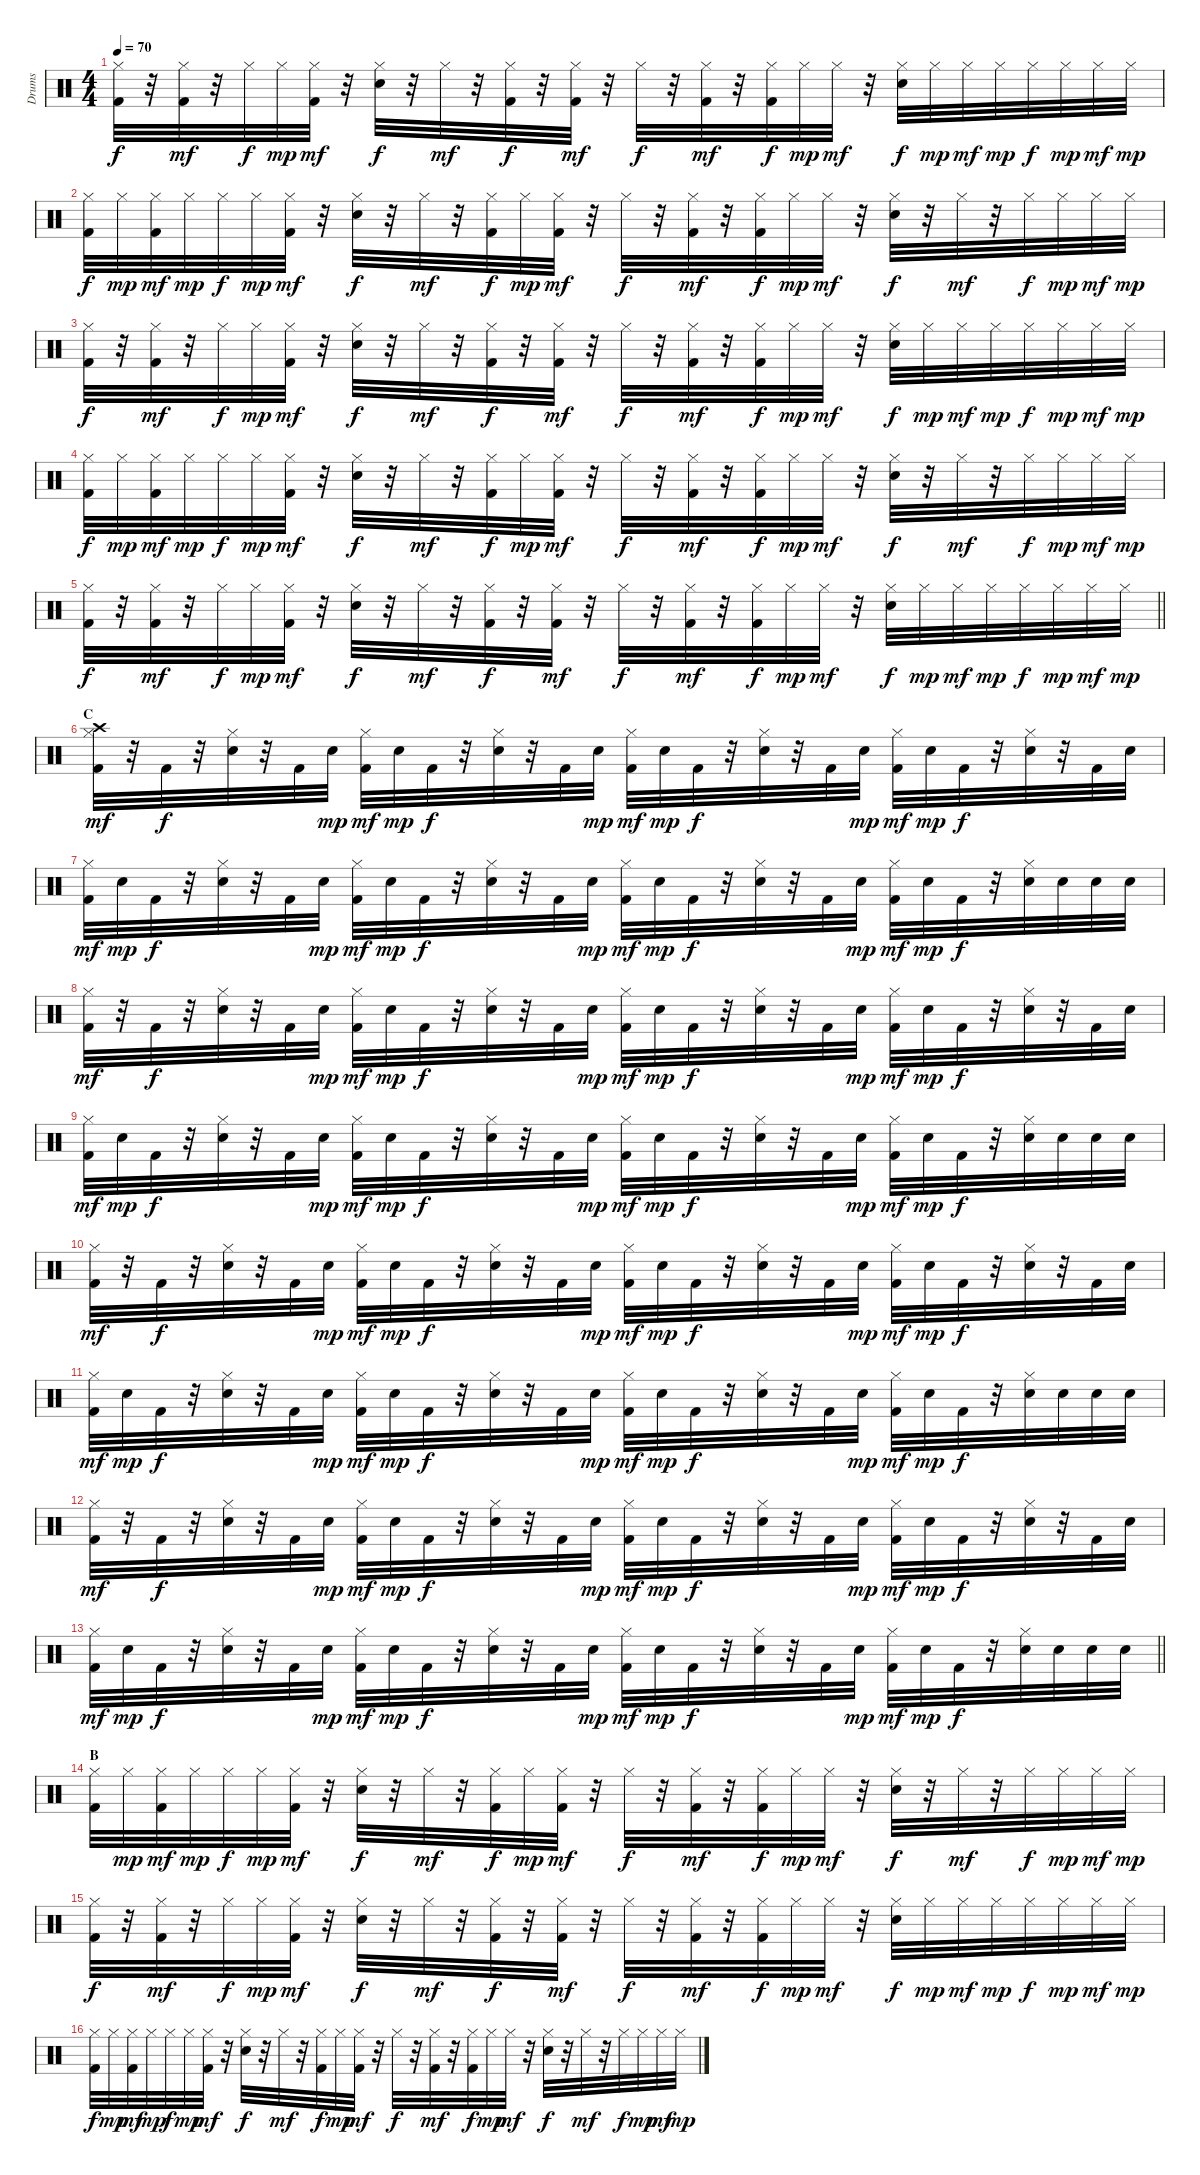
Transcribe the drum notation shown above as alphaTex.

\track ("Drums" "Drums") {instrument percussion}
\staff
\articulation defaults
\ts (4 4)
\tempo 70
\clef neutral
\ks c
("Hi-Hat (closed)" "Kick (hit) 2").32{dy f} r.32 ("Hi-Hat (closed)" "Kick (hit) 2").32{dy mf} r.32 "Hi-Hat (closed)".32{dy f} "Hi-Hat (closed)".32{dy mp} ("Hi-Hat (closed)" "Kick (hit) 2").32{dy mf} r.32 ("Hi-Hat (closed)" "Electric Snare (hit)").32{dy f} r.32 "Hi-Hat (closed)".32{dy mf} r.32 ("Hi-Hat (closed)" "Kick (hit) 2").32{dy f} r.32 ("Hi-Hat (closed)" "Kick (hit) 2").32{dy mf} r.32 "Hi-Hat (closed)".32{dy f} r.32 ("Hi-Hat (closed)" "Kick (hit) 2").32{dy mf} r.32 ("Hi-Hat (closed)" "Kick (hit) 2").32{dy f} "Hi-Hat (closed)".32{dy mp} "Hi-Hat (closed)".32{dy mf} r.32 ("Hi-Hat (closed)" "Electric Snare (hit)").32{dy f} "Hi-Hat (closed)".32{dy mp} "Hi-Hat (closed)".32{dy mf} "Hi-Hat (closed)".32{dy mp} "Hi-Hat (closed)".32{dy f} "Hi-Hat (closed)".32{dy mp} "Hi-Hat (closed)".32{dy mf} "Hi-Hat (closed)".32{dy mp} |
("Hi-Hat (closed)" "Kick (hit) 2").32{dy f} "Hi-Hat (closed)".32{dy mp} ("Hi-Hat (closed)" "Kick (hit) 2").32{dy mf} "Hi-Hat (closed)".32{dy mp} "Hi-Hat (closed)".32{dy f} "Hi-Hat (closed)".32{dy mp} ("Hi-Hat (closed)" "Kick (hit) 2").32{dy mf} r.32 ("Hi-Hat (closed)" "Electric Snare (hit)").32{dy f} r.32 "Hi-Hat (closed)".32{dy mf} r.32 ("Hi-Hat (closed)" "Kick (hit) 2").32{dy f} "Hi-Hat (closed)".32{dy mp} ("Hi-Hat (closed)" "Kick (hit) 2").32{dy mf} r.32 "Hi-Hat (closed)".32{dy f} r.32 ("Hi-Hat (closed)" "Kick (hit) 2").32{dy mf} r.32 ("Hi-Hat (closed)" "Kick (hit) 2").32{dy f} "Hi-Hat (closed)".32{dy mp} "Hi-Hat (closed)".32{dy mf} r.32 ("Hi-Hat (closed)" "Electric Snare (hit)").32{dy f} r.32 "Hi-Hat (closed)".32{dy mf} r.32 "Hi-Hat (closed)".32{dy f} "Hi-Hat (closed)".32{dy mp} "Hi-Hat (closed)".32{dy mf} "Hi-Hat (closed)".32{dy mp} |
("Hi-Hat (closed)" "Kick (hit) 2").32{dy f} r.32 ("Hi-Hat (closed)" "Kick (hit) 2").32{dy mf} r.32 "Hi-Hat (closed)".32{dy f} "Hi-Hat (closed)".32{dy mp} ("Hi-Hat (closed)" "Kick (hit) 2").32{dy mf} r.32 ("Hi-Hat (closed)" "Electric Snare (hit)").32{dy f} r.32 "Hi-Hat (closed)".32{dy mf} r.32 ("Hi-Hat (closed)" "Kick (hit) 2").32{dy f} r.32 ("Hi-Hat (closed)" "Kick (hit) 2").32{dy mf} r.32 "Hi-Hat (closed)".32{dy f} r.32 ("Hi-Hat (closed)" "Kick (hit) 2").32{dy mf} r.32 ("Hi-Hat (closed)" "Kick (hit) 2").32{dy f} "Hi-Hat (closed)".32{dy mp} "Hi-Hat (closed)".32{dy mf} r.32 ("Hi-Hat (closed)" "Electric Snare (hit)").32{dy f} "Hi-Hat (closed)".32{dy mp} "Hi-Hat (closed)".32{dy mf} "Hi-Hat (closed)".32{dy mp} "Hi-Hat (closed)".32{dy f} "Hi-Hat (closed)".32{dy mp} "Hi-Hat (closed)".32{dy mf} "Hi-Hat (closed)".32{dy mp} |
("Hi-Hat (closed)" "Kick (hit) 2").32{dy f} "Hi-Hat (closed)".32{dy mp} ("Hi-Hat (closed)" "Kick (hit) 2").32{dy mf} "Hi-Hat (closed)".32{dy mp} "Hi-Hat (closed)".32{dy f} "Hi-Hat (closed)".32{dy mp} ("Hi-Hat (closed)" "Kick (hit) 2").32{dy mf} r.32 ("Hi-Hat (closed)" "Electric Snare (hit)").32{dy f} r.32 "Hi-Hat (closed)".32{dy mf} r.32 ("Hi-Hat (closed)" "Kick (hit) 2").32{dy f} "Hi-Hat (closed)".32{dy mp} ("Hi-Hat (closed)" "Kick (hit) 2").32{dy mf} r.32 "Hi-Hat (closed)".32{dy f} r.32 ("Hi-Hat (closed)" "Kick (hit) 2").32{dy mf} r.32 ("Hi-Hat (closed)" "Kick (hit) 2").32{dy f} "Hi-Hat (closed)".32{dy mp} "Hi-Hat (closed)".32{dy mf} r.32 ("Hi-Hat (closed)" "Electric Snare (hit)").32{dy f} r.32 "Hi-Hat (closed)".32{dy mf} r.32 "Hi-Hat (closed)".32{dy f} "Hi-Hat (closed)".32{dy mp} "Hi-Hat (closed)".32{dy mf} "Hi-Hat (closed)".32{dy mp} |
\barLineRight lightlight
("Hi-Hat (closed)" "Kick (hit) 2").32{dy f} r.32 ("Hi-Hat (closed)" "Kick (hit) 2").32{dy mf} r.32 "Hi-Hat (closed)".32{dy f} "Hi-Hat (closed)".32{dy mp} ("Hi-Hat (closed)" "Kick (hit) 2").32{dy mf} r.32 ("Hi-Hat (closed)" "Electric Snare (hit)").32{dy f} r.32 "Hi-Hat (closed)".32{dy mf} r.32 ("Hi-Hat (closed)" "Kick (hit) 2").32{dy f} r.32 ("Hi-Hat (closed)" "Kick (hit) 2").32{dy mf} r.32 "Hi-Hat (closed)".32{dy f} r.32 ("Hi-Hat (closed)" "Kick (hit) 2").32{dy mf} r.32 ("Hi-Hat (closed)" "Kick (hit) 2").32{dy f} "Hi-Hat (closed)".32{dy mp} "Hi-Hat (closed)".32{dy mf} r.32 ("Hi-Hat (closed)" "Electric Snare (hit)").32{dy f} "Hi-Hat (closed)".32{dy mp} "Hi-Hat (closed)".32{dy mf} "Hi-Hat (closed)".32{dy mp} "Hi-Hat (closed)".32{dy f} "Hi-Hat (closed)".32{dy mp} "Hi-Hat (closed)".32{dy mf} "Hi-Hat (closed)".32{dy mp} |
\section ("" "C")
("Hi-Hat (closed)" "Crash high (hit)" "Kick (hit) 2").32{dy mf} r.32 "Kick (hit) 2".32{dy f} r.32 ("Hi-Hat (closed)" "Electric Snare (hit)").32 r.32 "Kick (hit) 2".32 "Electric Snare (hit)".32{dy mp} ("Hi-Hat (closed)" "Kick (hit) 2").32{dy mf} "Electric Snare (hit)".32{dy mp} "Kick (hit) 2".32{dy f} r.32 ("Hi-Hat (closed)" "Electric Snare (hit)").32 r.32 "Kick (hit) 2".32 "Electric Snare (hit)".32{dy mp} ("Hi-Hat (closed)" "Kick (hit) 2").32{dy mf} "Electric Snare (hit)".32{dy mp} "Kick (hit) 2".32{dy f} r.32 ("Hi-Hat (closed)" "Electric Snare (hit)").32 r.32 "Kick (hit) 2".32 "Electric Snare (hit)".32{dy mp} ("Hi-Hat (closed)" "Kick (hit) 2").32{dy mf} "Electric Snare (hit)".32{dy mp} "Kick (hit) 2".32{dy f} r.32 ("Hi-Hat (closed)" "Electric Snare (hit)").32 r.32 "Kick (hit) 2".32 "Electric Snare (hit)".32 |
("Hi-Hat (closed)" "Kick (hit) 2").32{dy mf} "Electric Snare (hit)".32{dy mp} "Kick (hit) 2".32{dy f} r.32 ("Hi-Hat (closed)" "Electric Snare (hit)").32 r.32 "Kick (hit) 2".32 "Electric Snare (hit)".32{dy mp} ("Hi-Hat (closed)" "Kick (hit) 2").32{dy mf} "Electric Snare (hit)".32{dy mp} "Kick (hit) 2".32{dy f} r.32 ("Hi-Hat (closed)" "Electric Snare (hit)").32 r.32 "Kick (hit) 2".32 "Electric Snare (hit)".32{dy mp} ("Hi-Hat (closed)" "Kick (hit) 2").32{dy mf} "Electric Snare (hit)".32{dy mp} "Kick (hit) 2".32{dy f} r.32 ("Hi-Hat (closed)" "Electric Snare (hit)").32 r.32 "Kick (hit) 2".32 "Electric Snare (hit)".32{dy mp} ("Hi-Hat (closed)" "Kick (hit) 2").32{dy mf} "Electric Snare (hit)".32{dy mp} "Kick (hit) 2".32{dy f} r.32 ("Hi-Hat (closed)" "Electric Snare (hit)").32 "Electric Snare (hit)".32 "Electric Snare (hit)".32 "Electric Snare (hit)".32 |
("Hi-Hat (closed)" "Kick (hit) 2").32{dy mf} r.32 "Kick (hit) 2".32{dy f} r.32 ("Hi-Hat (closed)" "Electric Snare (hit)").32 r.32 "Kick (hit) 2".32 "Electric Snare (hit)".32{dy mp} ("Hi-Hat (closed)" "Kick (hit) 2").32{dy mf} "Electric Snare (hit)".32{dy mp} "Kick (hit) 2".32{dy f} r.32 ("Hi-Hat (closed)" "Electric Snare (hit)").32 r.32 "Kick (hit) 2".32 "Electric Snare (hit)".32{dy mp} ("Hi-Hat (closed)" "Kick (hit) 2").32{dy mf} "Electric Snare (hit)".32{dy mp} "Kick (hit) 2".32{dy f} r.32 ("Hi-Hat (closed)" "Electric Snare (hit)").32 r.32 "Kick (hit) 2".32 "Electric Snare (hit)".32{dy mp} ("Hi-Hat (closed)" "Kick (hit) 2").32{dy mf} "Electric Snare (hit)".32{dy mp} "Kick (hit) 2".32{dy f} r.32 ("Hi-Hat (closed)" "Electric Snare (hit)").32 r.32 "Kick (hit) 2".32 "Electric Snare (hit)".32 |
("Hi-Hat (closed)" "Kick (hit) 2").32{dy mf} "Electric Snare (hit)".32{dy mp} "Kick (hit) 2".32{dy f} r.32 ("Hi-Hat (closed)" "Electric Snare (hit)").32 r.32 "Kick (hit) 2".32 "Electric Snare (hit)".32{dy mp} ("Hi-Hat (closed)" "Kick (hit) 2").32{dy mf} "Electric Snare (hit)".32{dy mp} "Kick (hit) 2".32{dy f} r.32 ("Hi-Hat (closed)" "Electric Snare (hit)").32 r.32 "Kick (hit) 2".32 "Electric Snare (hit)".32{dy mp} ("Hi-Hat (closed)" "Kick (hit) 2").32{dy mf} "Electric Snare (hit)".32{dy mp} "Kick (hit) 2".32{dy f} r.32 ("Hi-Hat (closed)" "Electric Snare (hit)").32 r.32 "Kick (hit) 2".32 "Electric Snare (hit)".32{dy mp} ("Hi-Hat (closed)" "Kick (hit) 2").32{dy mf} "Electric Snare (hit)".32{dy mp} "Kick (hit) 2".32{dy f} r.32 ("Hi-Hat (closed)" "Electric Snare (hit)").32 "Electric Snare (hit)".32 "Electric Snare (hit)".32 "Electric Snare (hit)".32 |
("Hi-Hat (closed)" "Kick (hit) 2").32{dy mf} r.32 "Kick (hit) 2".32{dy f} r.32 ("Hi-Hat (closed)" "Electric Snare (hit)").32 r.32 "Kick (hit) 2".32 "Electric Snare (hit)".32{dy mp} ("Hi-Hat (closed)" "Kick (hit) 2").32{dy mf} "Electric Snare (hit)".32{dy mp} "Kick (hit) 2".32{dy f} r.32 ("Hi-Hat (closed)" "Electric Snare (hit)").32 r.32 "Kick (hit) 2".32 "Electric Snare (hit)".32{dy mp} ("Hi-Hat (closed)" "Kick (hit) 2").32{dy mf} "Electric Snare (hit)".32{dy mp} "Kick (hit) 2".32{dy f} r.32 ("Hi-Hat (closed)" "Electric Snare (hit)").32 r.32 "Kick (hit) 2".32 "Electric Snare (hit)".32{dy mp} ("Hi-Hat (closed)" "Kick (hit) 2").32{dy mf} "Electric Snare (hit)".32{dy mp} "Kick (hit) 2".32{dy f} r.32 ("Hi-Hat (closed)" "Electric Snare (hit)").32 r.32 "Kick (hit) 2".32 "Electric Snare (hit)".32 |
("Hi-Hat (closed)" "Kick (hit) 2").32{dy mf} "Electric Snare (hit)".32{dy mp} "Kick (hit) 2".32{dy f} r.32 ("Hi-Hat (closed)" "Electric Snare (hit)").32 r.32 "Kick (hit) 2".32 "Electric Snare (hit)".32{dy mp} ("Hi-Hat (closed)" "Kick (hit) 2").32{dy mf} "Electric Snare (hit)".32{dy mp} "Kick (hit) 2".32{dy f} r.32 ("Hi-Hat (closed)" "Electric Snare (hit)").32 r.32 "Kick (hit) 2".32 "Electric Snare (hit)".32{dy mp} ("Hi-Hat (closed)" "Kick (hit) 2").32{dy mf} "Electric Snare (hit)".32{dy mp} "Kick (hit) 2".32{dy f} r.32 ("Hi-Hat (closed)" "Electric Snare (hit)").32 r.32 "Kick (hit) 2".32 "Electric Snare (hit)".32{dy mp} ("Hi-Hat (closed)" "Kick (hit) 2").32{dy mf} "Electric Snare (hit)".32{dy mp} "Kick (hit) 2".32{dy f} r.32 ("Hi-Hat (closed)" "Electric Snare (hit)").32 "Electric Snare (hit)".32 "Electric Snare (hit)".32 "Electric Snare (hit)".32 |
("Hi-Hat (closed)" "Kick (hit) 2").32{dy mf} r.32 "Kick (hit) 2".32{dy f} r.32 ("Hi-Hat (closed)" "Electric Snare (hit)").32 r.32 "Kick (hit) 2".32 "Electric Snare (hit)".32{dy mp} ("Hi-Hat (closed)" "Kick (hit) 2").32{dy mf} "Electric Snare (hit)".32{dy mp} "Kick (hit) 2".32{dy f} r.32 ("Hi-Hat (closed)" "Electric Snare (hit)").32 r.32 "Kick (hit) 2".32 "Electric Snare (hit)".32{dy mp} ("Hi-Hat (closed)" "Kick (hit) 2").32{dy mf} "Electric Snare (hit)".32{dy mp} "Kick (hit) 2".32{dy f} r.32 ("Hi-Hat (closed)" "Electric Snare (hit)").32 r.32 "Kick (hit) 2".32 "Electric Snare (hit)".32{dy mp} ("Hi-Hat (closed)" "Kick (hit) 2").32{dy mf} "Electric Snare (hit)".32{dy mp} "Kick (hit) 2".32{dy f} r.32 ("Hi-Hat (closed)" "Electric Snare (hit)").32 r.32 "Kick (hit) 2".32 "Electric Snare (hit)".32 |
\barLineRight lightlight
("Hi-Hat (closed)" "Kick (hit) 2").32{dy mf} "Electric Snare (hit)".32{dy mp} "Kick (hit) 2".32{dy f} r.32 ("Hi-Hat (closed)" "Electric Snare (hit)").32 r.32 "Kick (hit) 2".32 "Electric Snare (hit)".32{dy mp} ("Hi-Hat (closed)" "Kick (hit) 2").32{dy mf} "Electric Snare (hit)".32{dy mp} "Kick (hit) 2".32{dy f} r.32 ("Hi-Hat (closed)" "Electric Snare (hit)").32 r.32 "Kick (hit) 2".32 "Electric Snare (hit)".32{dy mp} ("Hi-Hat (closed)" "Kick (hit) 2").32{dy mf} "Electric Snare (hit)".32{dy mp} "Kick (hit) 2".32{dy f} r.32 ("Hi-Hat (closed)" "Electric Snare (hit)").32 r.32 "Kick (hit) 2".32 "Electric Snare (hit)".32{dy mp} ("Hi-Hat (closed)" "Kick (hit) 2").32{dy mf} "Electric Snare (hit)".32{dy mp} "Kick (hit) 2".32{dy f} r.32 ("Hi-Hat (closed)" "Electric Snare (hit)").32 "Electric Snare (hit)".32 "Electric Snare (hit)".32 "Electric Snare (hit)".32 |
\section ("" "B")
("Hi-Hat (closed)" "Kick (hit) 2").32 "Hi-Hat (closed)".32{dy mp} ("Hi-Hat (closed)" "Kick (hit) 2").32{dy mf} "Hi-Hat (closed)".32{dy mp} "Hi-Hat (closed)".32{dy f} "Hi-Hat (closed)".32{dy mp} ("Hi-Hat (closed)" "Kick (hit) 2").32{dy mf} r.32 ("Hi-Hat (closed)" "Electric Snare (hit)").32{dy f} r.32 "Hi-Hat (closed)".32{dy mf} r.32 ("Hi-Hat (closed)" "Kick (hit) 2").32{dy f} "Hi-Hat (closed)".32{dy mp} ("Hi-Hat (closed)" "Kick (hit) 2").32{dy mf} r.32 "Hi-Hat (closed)".32{dy f} r.32 ("Hi-Hat (closed)" "Kick (hit) 2").32{dy mf} r.32 ("Hi-Hat (closed)" "Kick (hit) 2").32{dy f} "Hi-Hat (closed)".32{dy mp} "Hi-Hat (closed)".32{dy mf} r.32 ("Hi-Hat (closed)" "Electric Snare (hit)").32{dy f} r.32 "Hi-Hat (closed)".32{dy mf} r.32 "Hi-Hat (closed)".32{dy f} "Hi-Hat (closed)".32{dy mp} "Hi-Hat (closed)".32{dy mf} "Hi-Hat (closed)".32{dy mp} |
("Hi-Hat (closed)" "Kick (hit) 2").32{dy f} r.32 ("Hi-Hat (closed)" "Kick (hit) 2").32{dy mf} r.32 "Hi-Hat (closed)".32{dy f} "Hi-Hat (closed)".32{dy mp} ("Hi-Hat (closed)" "Kick (hit) 2").32{dy mf} r.32 ("Hi-Hat (closed)" "Electric Snare (hit)").32{dy f} r.32 "Hi-Hat (closed)".32{dy mf} r.32 ("Hi-Hat (closed)" "Kick (hit) 2").32{dy f} r.32 ("Hi-Hat (closed)" "Kick (hit) 2").32{dy mf} r.32 "Hi-Hat (closed)".32{dy f} r.32 ("Hi-Hat (closed)" "Kick (hit) 2").32{dy mf} r.32 ("Hi-Hat (closed)" "Kick (hit) 2").32{dy f} "Hi-Hat (closed)".32{dy mp} "Hi-Hat (closed)".32{dy mf} r.32 ("Hi-Hat (closed)" "Electric Snare (hit)").32{dy f} "Hi-Hat (closed)".32{dy mp} "Hi-Hat (closed)".32{dy mf} "Hi-Hat (closed)".32{dy mp} "Hi-Hat (closed)".32{dy f} "Hi-Hat (closed)".32{dy mp} "Hi-Hat (closed)".32{dy mf} "Hi-Hat (closed)".32{dy mp} |
("Hi-Hat (closed)" "Kick (hit) 2").32{dy f} "Hi-Hat (closed)".32{dy mp} ("Hi-Hat (closed)" "Kick (hit) 2").32{dy mf} "Hi-Hat (closed)".32{dy mp} "Hi-Hat (closed)".32{dy f} "Hi-Hat (closed)".32{dy mp} ("Hi-Hat (closed)" "Kick (hit) 2").32{dy mf} r.32 ("Hi-Hat (closed)" "Electric Snare (hit)").32{dy f} r.32 "Hi-Hat (closed)".32{dy mf} r.32 ("Hi-Hat (closed)" "Kick (hit) 2").32{dy f} "Hi-Hat (closed)".32{dy mp} ("Hi-Hat (closed)" "Kick (hit) 2").32{dy mf} r.32 "Hi-Hat (closed)".32{dy f} r.32 ("Hi-Hat (closed)" "Kick (hit) 2").32{dy mf} r.32 ("Hi-Hat (closed)" "Kick (hit) 2").32{dy f} "Hi-Hat (closed)".32{dy mp} "Hi-Hat (closed)".32{dy mf} r.32 ("Hi-Hat (closed)" "Electric Snare (hit)").32{dy f} r.32 "Hi-Hat (closed)".32{dy mf} r.32 "Hi-Hat (closed)".32{dy f} "Hi-Hat (closed)".32{dy mp} "Hi-Hat (closed)".32{dy mf} "Hi-Hat (closed)".32{dy mp}
